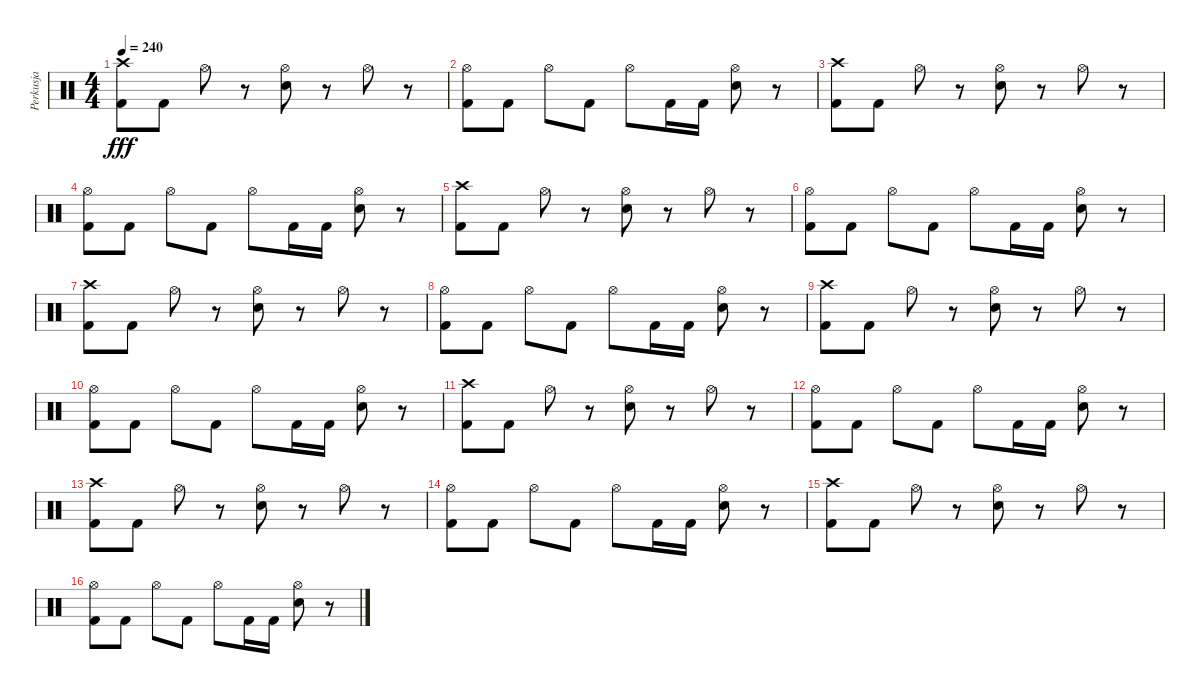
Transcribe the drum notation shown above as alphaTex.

\track ("Perkusja" "Perkusja") {instrument percussion bank 10}
\staff {score}
\articulation defaults
\ts (4 4)
\tempo 240
\clef neutral
\ks c
("Crash high (hit)" "Kick (hit) 2").8{dy fff} "Kick (hit) 2".8 "Hi-Hat (open)".8 r.8 ("Hi-Hat (open)" "Snare (hit) 2").8 r.8 "Hi-Hat (open)".8 r.8 |
("Hi-Hat (open)" "Kick (hit) 2").8 "Kick (hit) 2".8 "Hi-Hat (open)".8 "Kick (hit) 2".8 "Hi-Hat (open)".8 "Kick (hit) 2".16 "Kick (hit) 2".16 ("Hi-Hat (open)" "Snare (hit) 2").8 r.8 |
("Crash high (hit)" "Kick (hit) 2").8 "Kick (hit) 2".8 "Hi-Hat (open)".8 r.8 ("Hi-Hat (open)" "Snare (hit) 2").8 r.8 "Hi-Hat (open)".8 r.8 |
("Hi-Hat (open)" "Kick (hit) 2").8 "Kick (hit) 2".8 "Hi-Hat (open)".8 "Kick (hit) 2".8 "Hi-Hat (open)".8 "Kick (hit) 2".16 "Kick (hit) 2".16 ("Hi-Hat (open)" "Snare (hit) 2").8 r.8 |
("Crash high (hit)" "Kick (hit) 2").8 "Kick (hit) 2".8 "Hi-Hat (open)".8 r.8 ("Hi-Hat (open)" "Snare (hit) 2").8 r.8 "Hi-Hat (open)".8 r.8 |
("Hi-Hat (open)" "Kick (hit) 2").8 "Kick (hit) 2".8 "Hi-Hat (open)".8 "Kick (hit) 2".8 "Hi-Hat (open)".8 "Kick (hit) 2".16 "Kick (hit) 2".16 ("Hi-Hat (open)" "Snare (hit) 2").8 r.8 |
("Crash high (hit)" "Kick (hit) 2").8 "Kick (hit) 2".8 "Hi-Hat (open)".8 r.8 ("Hi-Hat (open)" "Snare (hit) 2").8 r.8 "Hi-Hat (open)".8 r.8 |
("Hi-Hat (open)" "Kick (hit) 2").8 "Kick (hit) 2".8 "Hi-Hat (open)".8 "Kick (hit) 2".8 "Hi-Hat (open)".8 "Kick (hit) 2".16 "Kick (hit) 2".16 ("Hi-Hat (open)" "Snare (hit) 2").8 r.8 |
("Crash high (hit)" "Kick (hit) 2").8 "Kick (hit) 2".8 "Hi-Hat (open)".8 r.8 ("Hi-Hat (open)" "Snare (hit) 2").8 r.8 "Hi-Hat (open)".8 r.8 |
("Hi-Hat (open)" "Kick (hit) 2").8 "Kick (hit) 2".8 "Hi-Hat (open)".8 "Kick (hit) 2".8 "Hi-Hat (open)".8 "Kick (hit) 2".16 "Kick (hit) 2".16 ("Hi-Hat (open)" "Snare (hit) 2").8 r.8 |
("Crash high (hit)" "Kick (hit) 2").8 "Kick (hit) 2".8 "Hi-Hat (open)".8 r.8 ("Hi-Hat (open)" "Snare (hit) 2").8 r.8 "Hi-Hat (open)".8 r.8 |
("Hi-Hat (open)" "Kick (hit) 2").8 "Kick (hit) 2".8 "Hi-Hat (open)".8 "Kick (hit) 2".8 "Hi-Hat (open)".8 "Kick (hit) 2".16 "Kick (hit) 2".16 ("Hi-Hat (open)" "Snare (hit) 2").8 r.8 |
("Crash high (hit)" "Kick (hit) 2").8 "Kick (hit) 2".8 "Hi-Hat (open)".8 r.8 ("Hi-Hat (open)" "Snare (hit) 2").8 r.8 "Hi-Hat (open)".8 r.8 |
("Hi-Hat (open)" "Kick (hit) 2").8 "Kick (hit) 2".8 "Hi-Hat (open)".8 "Kick (hit) 2".8 "Hi-Hat (open)".8 "Kick (hit) 2".16 "Kick (hit) 2".16 ("Hi-Hat (open)" "Snare (hit) 2").8 r.8 |
("Crash high (hit)" "Kick (hit) 2").8 "Kick (hit) 2".8 "Hi-Hat (open)".8 r.8 ("Hi-Hat (open)" "Snare (hit) 2").8 r.8 "Hi-Hat (open)".8 r.8 |
("Hi-Hat (open)" "Kick (hit) 2").8 "Kick (hit) 2".8 "Hi-Hat (open)".8 "Kick (hit) 2".8 "Hi-Hat (open)".8 "Kick (hit) 2".16 "Kick (hit) 2".16 ("Hi-Hat (open)" "Snare (hit) 2").8 r.8
